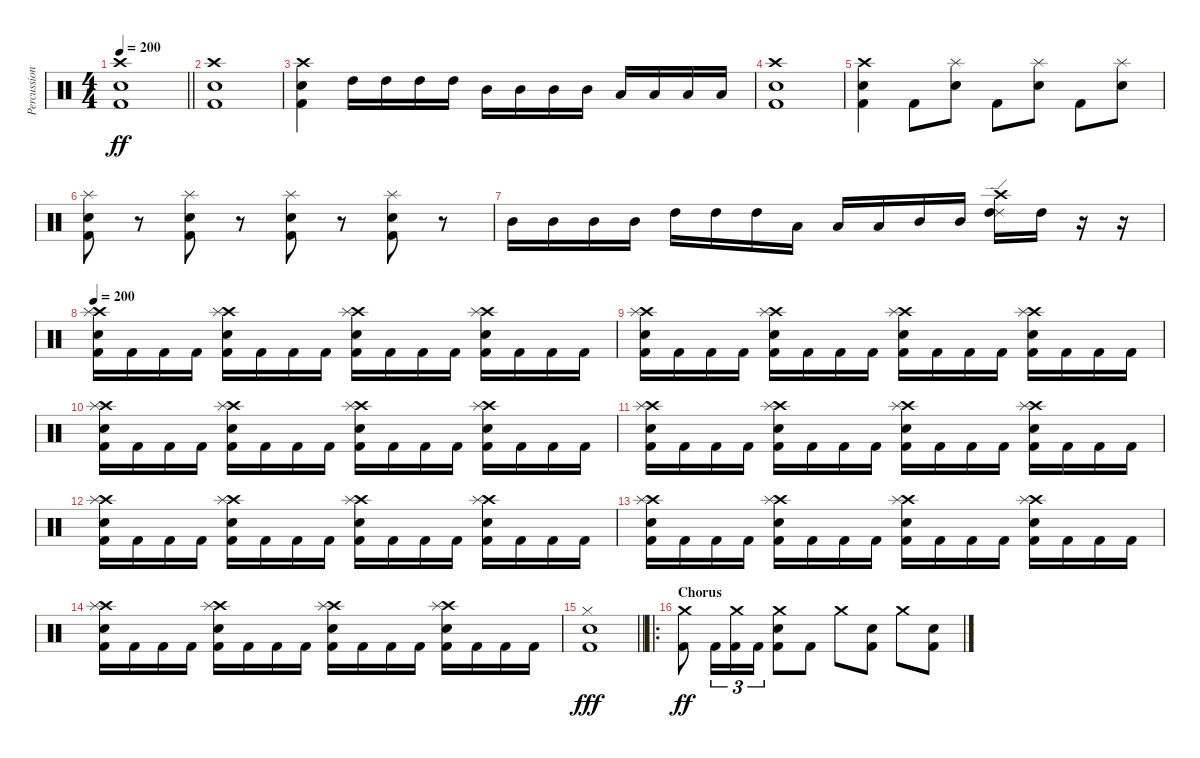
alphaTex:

\track ("Percussion" "Percussion") {instrument percussion}
\staff {score}
\articulation defaults
\ts (4 4)
\tempo 200
\clef neutral
\barLineRight lightlight
\ks c
("Crash high (hit)" "Electric Snare (hit)" "Kick (hit) 2").1{dy ff} |
("Crash high (hit)" "Electric Snare (hit)" "Kick (hit) 2").1 |
("Crash high (hit)" "Electric Snare (hit)" "Kick (hit) 2").4 "High Tom (hit)".16 "High Tom (hit)".16 "High Tom (hit)".16 "High Tom (hit)".16 "Mid Tom (hit)".16 "Mid Tom (hit)".16 "Mid Tom (hit)".16 "Mid Tom (hit)".16 "Low Tom (hit)".16 "Low Tom (hit)".16 "Low Tom (hit)".16 "Low Tom (hit)".16 |
("Crash high (hit)" "Electric Snare (hit)" "Kick (hit) 2").1 |
("Crash high (hit)" "Electric Snare (hit)" "Kick (hit) 2").4 "Kick (hit) 2".8 ("Splash (hit)" "Electric Snare (hit)").8 "Kick (hit) 2".8 ("Splash (hit)" "Electric Snare (hit)").8 "Kick (hit) 2".8 ("Splash (hit)" "Electric Snare (hit)").8 |
("Splash (hit)" "Electric Snare (hit)" "Kick (hit) 2").8 r.8 ("Splash (hit)" "Electric Snare (hit)" "Kick (hit) 2").8 r.8 ("Splash (hit)" "Electric Snare (hit)" "Kick (hit) 2").8 r.8 ("Splash (hit)" "Electric Snare (hit)" "Kick (hit) 2").8 r.8 |
"Mid Tom (hit)".16 "Mid Tom (hit)".16 "Mid Tom (hit)".16 "Mid Tom (hit)".16 "High Tom (hit)".16 "High Tom (hit)".16 "High Tom (hit)".16 "Low Tom (hit)".16 "Low Tom (hit)".16 "Low Tom (hit)".16 "Mid Tom (hit)".16 "Mid Tom (hit)".16 ("Ride (edge) 2" "Crash high (hit)" "High Tom (hit)").16 "High Tom (hit)".16 r.16 r.16 |
\tempo 200
("Crash high (hit)" "Splash (hit)" "Electric Snare (hit)" "Kick (hit) 2").16 "Kick (hit) 2".16 "Kick (hit) 2".16 "Kick (hit) 2".16 ("Crash high (hit)" "Splash (hit)" "Electric Snare (hit)" "Kick (hit) 2").16 "Kick (hit) 2".16 "Kick (hit) 2".16 "Kick (hit) 2".16 ("Crash high (hit)" "Splash (hit)" "Electric Snare (hit)" "Kick (hit) 2").16 "Kick (hit) 2".16 "Kick (hit) 2".16 "Kick (hit) 2".16 ("Crash high (hit)" "Splash (hit)" "Electric Snare (hit)" "Kick (hit) 2").16 "Kick (hit) 2".16 "Kick (hit) 2".16 "Kick (hit) 2".16 |
("Crash high (hit)" "Splash (hit)" "Electric Snare (hit)" "Kick (hit) 2").16 "Kick (hit) 2".16 "Kick (hit) 2".16 "Kick (hit) 2".16 ("Crash high (hit)" "Splash (hit)" "Electric Snare (hit)" "Kick (hit) 2").16 "Kick (hit) 2".16 "Kick (hit) 2".16 "Kick (hit) 2".16 ("Crash high (hit)" "Splash (hit)" "Electric Snare (hit)" "Kick (hit) 2").16 "Kick (hit) 2".16 "Kick (hit) 2".16 "Kick (hit) 2".16 ("Crash high (hit)" "Splash (hit)" "Electric Snare (hit)" "Kick (hit) 2").16 "Kick (hit) 2".16 "Kick (hit) 2".16 "Kick (hit) 2".16 |
("Crash high (hit)" "Splash (hit)" "Electric Snare (hit)" "Kick (hit) 2").16 "Kick (hit) 2".16 "Kick (hit) 2".16 "Kick (hit) 2".16 ("Crash high (hit)" "Splash (hit)" "Electric Snare (hit)" "Kick (hit) 2").16 "Kick (hit) 2".16 "Kick (hit) 2".16 "Kick (hit) 2".16 ("Crash high (hit)" "Splash (hit)" "Electric Snare (hit)" "Kick (hit) 2").16 "Kick (hit) 2".16 "Kick (hit) 2".16 "Kick (hit) 2".16 ("Crash high (hit)" "Splash (hit)" "Electric Snare (hit)" "Kick (hit) 2").16 "Kick (hit) 2".16 "Kick (hit) 2".16 "Kick (hit) 2".16 |
("Crash high (hit)" "Splash (hit)" "Electric Snare (hit)" "Kick (hit) 2").16 "Kick (hit) 2".16 "Kick (hit) 2".16 "Kick (hit) 2".16 ("Crash high (hit)" "Splash (hit)" "Electric Snare (hit)" "Kick (hit) 2").16 "Kick (hit) 2".16 "Kick (hit) 2".16 "Kick (hit) 2".16 ("Crash high (hit)" "Splash (hit)" "Electric Snare (hit)" "Kick (hit) 2").16 "Kick (hit) 2".16 "Kick (hit) 2".16 "Kick (hit) 2".16 ("Crash high (hit)" "Splash (hit)" "Electric Snare (hit)" "Kick (hit) 2").16 "Kick (hit) 2".16 "Kick (hit) 2".16 "Kick (hit) 2".16 |
("Crash high (hit)" "Splash (hit)" "Electric Snare (hit)" "Kick (hit) 2").16 "Kick (hit) 2".16 "Kick (hit) 2".16 "Kick (hit) 2".16 ("Crash high (hit)" "Splash (hit)" "Electric Snare (hit)" "Kick (hit) 2").16 "Kick (hit) 2".16 "Kick (hit) 2".16 "Kick (hit) 2".16 ("Crash high (hit)" "Splash (hit)" "Electric Snare (hit)" "Kick (hit) 2").16 "Kick (hit) 2".16 "Kick (hit) 2".16 "Kick (hit) 2".16 ("Crash high (hit)" "Splash (hit)" "Electric Snare (hit)" "Kick (hit) 2").16 "Kick (hit) 2".16 "Kick (hit) 2".16 "Kick (hit) 2".16 |
("Crash high (hit)" "Splash (hit)" "Electric Snare (hit)" "Kick (hit) 2").16 "Kick (hit) 2".16 "Kick (hit) 2".16 "Kick (hit) 2".16 ("Crash high (hit)" "Splash (hit)" "Electric Snare (hit)" "Kick (hit) 2").16 "Kick (hit) 2".16 "Kick (hit) 2".16 "Kick (hit) 2".16 ("Crash high (hit)" "Splash (hit)" "Electric Snare (hit)" "Kick (hit) 2").16 "Kick (hit) 2".16 "Kick (hit) 2".16 "Kick (hit) 2".16 ("Crash high (hit)" "Splash (hit)" "Electric Snare (hit)" "Kick (hit) 2").16 "Kick (hit) 2".16 "Kick (hit) 2".16 "Kick (hit) 2".16 |
("Crash high (hit)" "Splash (hit)" "Electric Snare (hit)" "Kick (hit) 2").16 "Kick (hit) 2".16 "Kick (hit) 2".16 "Kick (hit) 2".16 ("Crash high (hit)" "Splash (hit)" "Electric Snare (hit)" "Kick (hit) 2").16 "Kick (hit) 2".16 "Kick (hit) 2".16 "Kick (hit) 2".16 ("Crash high (hit)" "Splash (hit)" "Electric Snare (hit)" "Kick (hit) 2").16 "Kick (hit) 2".16 "Kick (hit) 2".16 "Kick (hit) 2".16 ("Crash high (hit)" "Splash (hit)" "Electric Snare (hit)" "Kick (hit) 2").16 "Kick (hit) 2".16 "Kick (hit) 2".16 "Kick (hit) 2".16 |
\barLineRight lightlight
("Hi-Hat (closed)" "Electric Snare (hit)" "Kick (hit) 2").1{dy fff} |
\ro
\section ("" "Chorus ")
("Crash medium (hit)" "Kick (hit) 2").8{dy ff} "Kick (hit) 2".16{tu (3 2)} ("Crash medium (hit)" "Kick (hit) 2").16{tu (3 2)} "Kick (hit) 2".16{tu (3 2)} ("Crash medium (hit)" "Electric Snare (hit)" "Kick (hit) 2").8 "Kick (hit) 2".8 "Crash medium (hit)".8 ("Electric Snare (hit)" "Kick (hit) 2").8 "Crash medium (hit)".8 ("Electric Snare (hit)" "Kick (hit) 2").8
